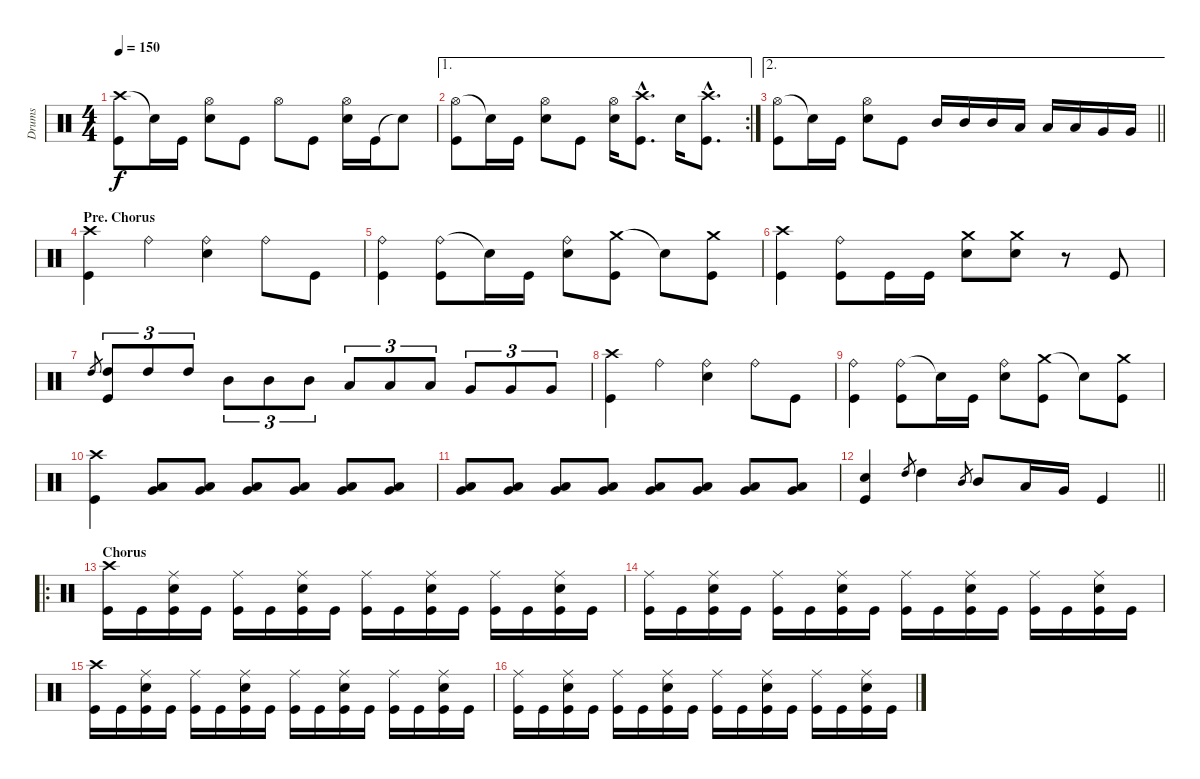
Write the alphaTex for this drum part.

\track ("Drums" "Drums") {instrument percussion}
\staff {score}
\articulation defaults
\ts (4 4)
\tempo 150
\clef neutral
\ks c
("Crash high (hit)" "Kick (hit)").8{dy f} "Snare (hit)"{t}.16 "Kick (hit)".16 ("Hi-Hat (open)" "Snare (hit) 2").8 "Kick (hit)".8 "Hi-Hat (open)".8 "Kick (hit)".8 ("Hi-Hat (open)" "Electric Snare (hit)").16 "Kick (hit)".16 "Snare (hit)"{t}.8 |
\ae 1
\rc 2
("Hi-Hat (open)" "Kick (hit)").8 "Snare (hit)"{t}.16 "Kick (hit)".16 ("Hi-Hat (open)" "Snare (hit) 2").8 "Kick (hit)".8 ("Hi-Hat (open)" "Electric Snare (hit)").16 ("Crash high (hit)"{hac} "Kick (hit)"{hac}).8{d} "Electric Snare (hit)".16 ("Crash high (hit)"{hac} "Kick (hit)"{hac}).8{d} |
\ae 2
\barLineRight lightlight
("Hi-Hat (open)" "Kick (hit)").8 "Snare (hit)"{t}.16 "Kick (hit)".16 ("Hi-Hat (open)" "Snare (hit) 2").8 "Kick (hit)".8 "Mid Tom (hit)".16 "Mid Tom (hit)".16 "Mid Tom (hit)".16 "Low Tom (hit)".16 "Low Tom (hit)".16 "Low Tom (hit)".16 "Very Low Tom (hit)".16 "Very Low Tom (hit)".16 |
\section ("" "Pre. Chorus")
("Crash high (hit)" "Kick (hit)").4 "Ride (bell)".4 ("Ride (bell)" "Electric Snare (hit)").4 "Ride (bell)".8 "Kick (hit)".8 |
("Ride (bell)" "Kick (hit)").4 ("Ride (bell)" "Kick (hit)").8 "Snare (hit)"{t}.16 "Kick (hit)".16 ("Ride (bell)" "Snare (hit) 2").8 ("Crash medium (hit)" "Kick (hit)").8 "Snare (hit)"{t}.8 ("Crash medium (hit)" "Kick (hit)").8 |
("Crash high (hit)" "Kick (hit)").4 ("Ride (bell)" "Kick (hit)").8 "Kick (hit)".16 "Kick (hit)".16 ("Crash medium (hit)" "Snare (hit) 2").8 ("Crash medium (hit)" "Snare (hit) 2").8 r.8 "Kick (hit)".8 |
"High Tom (hit)".8{gr} ("High Tom (hit)" "Kick (hit)").8{tu (3 2)} "High Tom (hit)".8{tu (3 2)} "High Tom (hit)".8{tu (3 2)} "Mid Tom (hit)".8{tu (3 2)} "Mid Tom (hit)".8{tu (3 2)} "Mid Tom (hit)".8{tu (3 2)} "Low Tom (hit)".8{tu (3 2)} "Low Tom (hit)".8{tu (3 2)} "Low Tom (hit)".8{tu (3 2)} "Very Low Tom (hit)".8{tu (3 2)} "Very Low Tom (hit)".8{tu (3 2)} "Very Low Tom (hit)".8{tu (3 2)} |
("Crash high (hit)" "Kick (hit)").4 "Ride (bell)".4 ("Ride (bell)" "Electric Snare (hit)").4 "Ride (bell)".8 "Kick (hit)".8 |
("Ride (bell)" "Kick (hit)").4 ("Ride (bell)" "Kick (hit)").8 "Snare (hit)"{t}.16 "Kick (hit)".16 ("Ride (bell)" "Snare (hit) 2").8 ("Crash medium (hit)" "Kick (hit)").8 "Snare (hit)"{t}.8 ("Crash medium (hit)" "Kick (hit)").8 |
("Crash high (hit)" "Kick (hit)").4 ("Very Low Tom (hit)" "Low Tom (hit)").8 ("Very Low Tom (hit)" "Low Tom (hit)").8 ("Very Low Tom (hit)" "Low Tom (hit)").8 ("Very Low Tom (hit)" "Low Tom (hit)").8 ("Very Low Tom (hit)" "Low Tom (hit)").8 ("Very Low Tom (hit)" "Low Tom (hit)").8 |
("Very Low Tom (hit)" "Low Tom (hit)").8 ("Very Low Tom (hit)" "Low Tom (hit)").8 ("Very Low Tom (hit)" "Low Tom (hit)").8 ("Very Low Tom (hit)" "Low Tom (hit)").8 ("Very Low Tom (hit)" "Low Tom (hit)").8 ("Very Low Tom (hit)" "Low Tom (hit)").8 ("Very Low Tom (hit)" "Low Tom (hit)").8 ("Very Low Tom (hit)" "Low Tom (hit)").8 |
\barLineRight lightlight
("Snare (hit) 2" "Kick (hit)").4 "High Tom (hit)".8{gr} "High Tom (hit)".4 "Mid Tom (hit)".8{gr} "Mid Tom (hit)".8 "Low Tom (hit)".16 "Very Low Tom (hit)".16 "Kick (hit)".4 |
\ro
\section ("" "Chorus")
("Crash high (hit)" "Kick (hit)").16 "Kick (hit)".16 ("Ride (middle)" "Snare (hit) 2" "Kick (hit)").16 "Kick (hit)".16 ("Ride (middle)" "Kick (hit)").16 "Kick (hit)".16 ("Ride (middle)" "Snare (hit) 2" "Kick (hit)").16 "Kick (hit)".16 ("Ride (middle)" "Kick (hit)").16 "Kick (hit)".16 ("Ride (middle)" "Snare (hit) 2" "Kick (hit)").16 "Kick (hit)".16 ("Ride (middle)" "Kick (hit)").16 "Kick (hit)".16 ("Ride (middle)" "Snare (hit) 2" "Kick (hit)").16 "Kick (hit)".16 |
("Ride (middle)" "Kick (hit)").16 "Kick (hit)".16 ("Ride (middle)" "Snare (hit) 2" "Kick (hit)").16 "Kick (hit)".16 ("Ride (middle)" "Kick (hit)").16 "Kick (hit)".16 ("Ride (middle)" "Snare (hit) 2" "Kick (hit)").16 "Kick (hit)".16 ("Ride (middle)" "Kick (hit)").16 "Kick (hit)".16 ("Ride (middle)" "Snare (hit) 2" "Kick (hit)").16 "Kick (hit)".16 ("Ride (middle)" "Kick (hit)").16 "Kick (hit)".16 ("Ride (middle)" "Snare (hit) 2" "Kick (hit)").16 "Kick (hit)".16 |
("Crash high (hit)" "Kick (hit)").16 "Kick (hit)".16 ("Ride (middle)" "Snare (hit) 2" "Kick (hit)").16 "Kick (hit)".16 ("Ride (middle)" "Kick (hit)").16 "Kick (hit)".16 ("Ride (middle)" "Snare (hit) 2" "Kick (hit)").16 "Kick (hit)".16 ("Ride (middle)" "Kick (hit)").16 "Kick (hit)".16 ("Ride (middle)" "Snare (hit) 2" "Kick (hit)").16 "Kick (hit)".16 ("Ride (middle)" "Kick (hit)").16 "Kick (hit)".16 ("Ride (middle)" "Snare (hit) 2" "Kick (hit)").16 "Kick (hit)".16 |
("Ride (middle)" "Kick (hit)").16 "Kick (hit)".16 ("Ride (middle)" "Snare (hit) 2" "Kick (hit)").16 "Kick (hit)".16 ("Ride (middle)" "Kick (hit)").16 "Kick (hit)".16 ("Ride (middle)" "Snare (hit) 2" "Kick (hit)").16 "Kick (hit)".16 ("Ride (middle)" "Kick (hit)").16 "Kick (hit)".16 ("Ride (middle)" "Snare (hit) 2" "Kick (hit)").16 "Kick (hit)".16 ("Ride (middle)" "Kick (hit)").16 "Kick (hit)".16 ("Ride (middle)" "Snare (hit) 2" "Kick (hit)").16 "Kick (hit)".16
